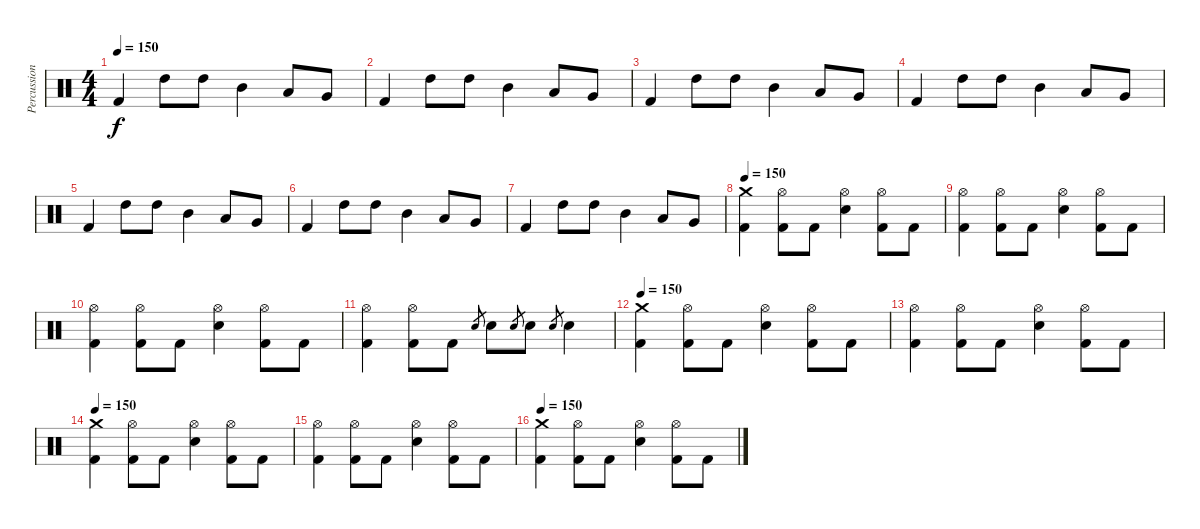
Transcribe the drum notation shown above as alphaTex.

\track ("Percussions" "Percussion") {instrument percussion}
\staff {score}
\articulation defaults
\ts (4 4)
\tempo 150
\clef neutral
\ks c "Kick (hit) 2".4{dy f} "High Tom (hit)".8 "High Tom (hit)".8 "Mid Tom (hit)".4 "Low Tom (hit)".8 "Very Low Tom (hit)".8
|
"Kick (hit) 2".4 "High Tom (hit)".8 "High Tom (hit)".8 "Mid Tom (hit)".4 "Low Tom (hit)".8 "Very Low Tom (hit)".8 |
"Kick (hit) 2".4 "High Tom (hit)".8 "High Tom (hit)".8 "Mid Tom (hit)".4 "Low Tom (hit)".8 "Very Low Tom (hit)".8 |
"Kick (hit) 2".4 "High Tom (hit)".8 "High Tom (hit)".8 "Mid Tom (hit)".4 "Low Tom (hit)".8 "Very Low Tom (hit)".8 |
"Kick (hit) 2".4 "High Tom (hit)".8 "High Tom (hit)".8 "Mid Tom (hit)".4 "Low Tom (hit)".8 "Very Low Tom (hit)".8 |
"Kick (hit) 2".4 "High Tom (hit)".8 "High Tom (hit)".8 "Mid Tom (hit)".4 "Low Tom (hit)".8 "Very Low Tom (hit)".8 |
"Kick (hit) 2".4 "High Tom (hit)".8 "High Tom (hit)".8 "Mid Tom (hit)".4 "Low Tom (hit)".8 "Very Low Tom (hit)".8 |
\tempo 150
("Crash medium (hit)" "Kick (hit) 2").4 ("Hi-Hat (open)" "Kick (hit) 2").8 "Kick (hit) 2".8 ("Hi-Hat (open)" "Electric Snare (hit)").4 ("Hi-Hat (open)" "Kick (hit) 2").8 "Kick (hit) 2".8 |
("Hi-Hat (open)" "Kick (hit) 2").4 ("Hi-Hat (open)" "Kick (hit) 2").8 "Kick (hit) 2".8 ("Hi-Hat (open)" "Electric Snare (hit)").4 ("Hi-Hat (open)" "Kick (hit) 2").8 "Kick (hit) 2".8 |
("Hi-Hat (open)" "Kick (hit) 2").4 ("Hi-Hat (open)" "Kick (hit) 2").8 "Kick (hit) 2".8 ("Hi-Hat (open)" "Electric Snare (hit)").4 ("Hi-Hat (open)" "Kick (hit) 2").8 "Kick (hit) 2".8 |
("Hi-Hat (open)" "Kick (hit) 2").4 ("Hi-Hat (open)" "Kick (hit) 2").8 "Kick (hit) 2".8 "Electric Snare (hit)".8{gr} "Electric Snare (hit)".8 "Electric Snare (hit)".8{gr} "Electric Snare (hit)".8 "Electric Snare (hit)".8{gr} "Electric Snare (hit)".4 |
\tempo 150
("Crash medium (hit)" "Kick (hit) 2").4 ("Hi-Hat (open)" "Kick (hit) 2").8 "Kick (hit) 2".8 ("Hi-Hat (open)" "Electric Snare (hit)").4 ("Hi-Hat (open)" "Kick (hit) 2").8 "Kick (hit) 2".8 |
("Hi-Hat (open)" "Kick (hit) 2").4 ("Hi-Hat (open)" "Kick (hit) 2").8 "Kick (hit) 2".8 ("Hi-Hat (open)" "Electric Snare (hit)").4 ("Hi-Hat (open)" "Kick (hit) 2").8 "Kick (hit) 2".8 |
\tempo 150
("Crash medium (hit)" "Kick (hit) 2").4 ("Hi-Hat (open)" "Kick (hit) 2").8 "Kick (hit) 2".8 ("Hi-Hat (open)" "Electric Snare (hit)").4 ("Hi-Hat (open)" "Kick (hit) 2").8 "Kick (hit) 2".8 |
("Hi-Hat (open)" "Kick (hit) 2").4 ("Hi-Hat (open)" "Kick (hit) 2").8 "Kick (hit) 2".8 ("Hi-Hat (open)" "Electric Snare (hit)").4 ("Hi-Hat (open)" "Kick (hit) 2").8 "Kick (hit) 2".8 |
\tempo 150
("Crash medium (hit)" "Kick (hit) 2").4 ("Hi-Hat (open)" "Kick (hit) 2").8 "Kick (hit) 2".8 ("Hi-Hat (open)" "Electric Snare (hit)").4 ("Hi-Hat (open)" "Kick (hit) 2").8 "Kick (hit) 2".8
